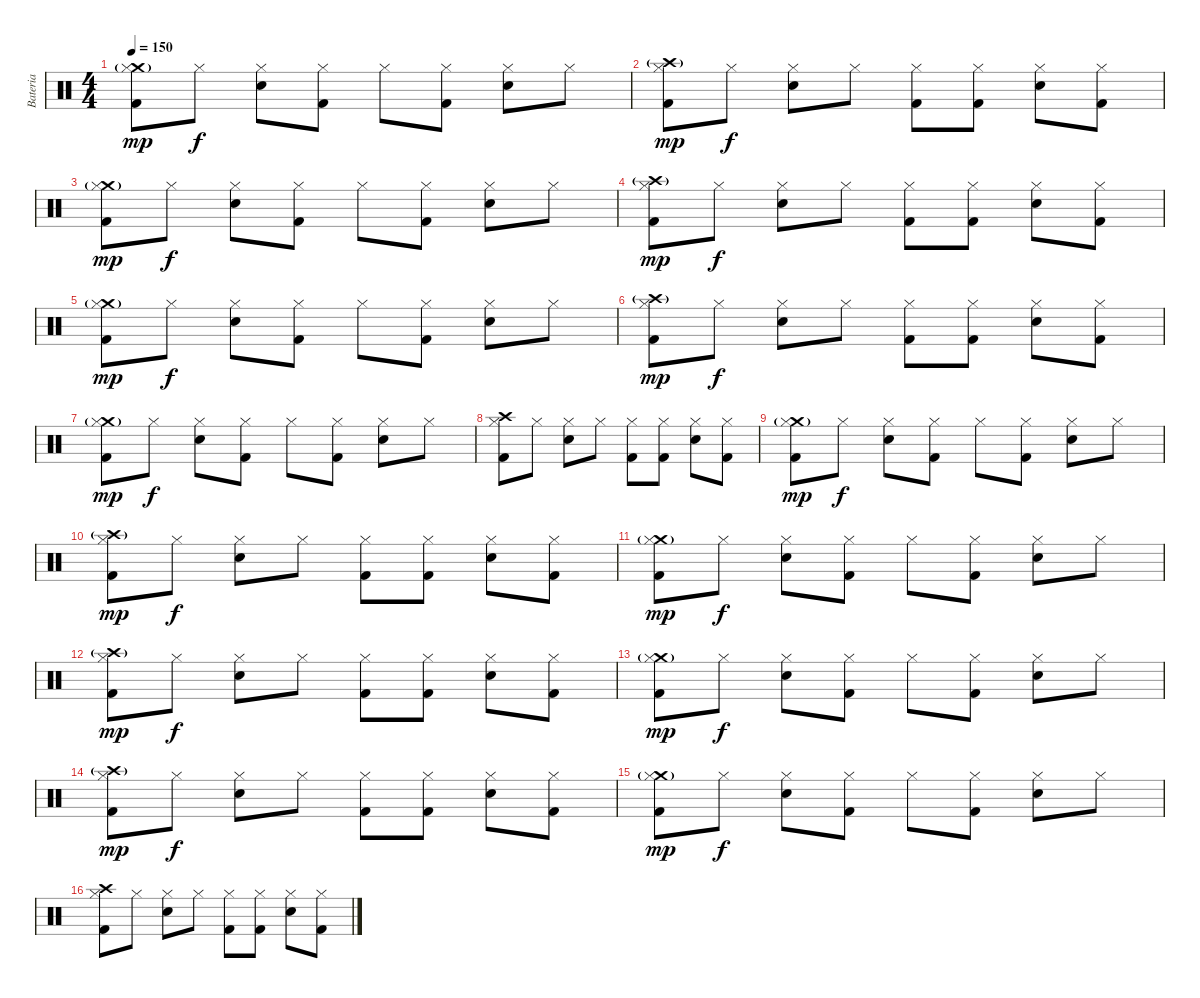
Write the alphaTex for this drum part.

\track ("Bateria" "Bateria") {instrument percussion}
\staff {score}
\articulation defaults
\ts (4 4)
\tempo 150
\clef neutral
\ks c
("Kick (hit) 2" "Crash medium (hit)"{g} "Hi-Hat (closed)").8{dy mp} "Hi-Hat (closed)".8{dy f} ("Electric Snare (hit)" "Hi-Hat (closed)").8 ("Kick (hit) 2" "Hi-Hat (closed)").8 "Hi-Hat (closed)".8 ("Kick (hit) 2" "Hi-Hat (closed)").8 ("Electric Snare (hit)" "Hi-Hat (closed)").8 "Hi-Hat (closed)".8 |
("Kick (hit) 2" "Crash high (hit)"{g} "Hi-Hat (closed)").8{dy mp} "Hi-Hat (closed)".8{dy f} ("Electric Snare (hit)" "Hi-Hat (closed)").8 "Hi-Hat (closed)".8 ("Kick (hit) 2" "Hi-Hat (closed)").8 ("Kick (hit) 2" "Hi-Hat (closed)").8 ("Electric Snare (hit)" "Hi-Hat (closed)").8 ("Kick (hit) 2" "Hi-Hat (closed)").8 |
("Kick (hit) 2" "Crash medium (hit)"{g} "Hi-Hat (closed)").8{dy mp} "Hi-Hat (closed)".8{dy f} ("Electric Snare (hit)" "Hi-Hat (closed)").8 ("Kick (hit) 2" "Hi-Hat (closed)").8 "Hi-Hat (closed)".8 ("Kick (hit) 2" "Hi-Hat (closed)").8 ("Electric Snare (hit)" "Hi-Hat (closed)").8 "Hi-Hat (closed)".8 |
("Kick (hit) 2" "Crash high (hit)"{g} "Hi-Hat (closed)").8{dy mp} "Hi-Hat (closed)".8{dy f} ("Electric Snare (hit)" "Hi-Hat (closed)").8 "Hi-Hat (closed)".8 ("Kick (hit) 2" "Hi-Hat (closed)").8 ("Kick (hit) 2" "Hi-Hat (closed)").8 ("Electric Snare (hit)" "Hi-Hat (closed)").8 ("Kick (hit) 2" "Hi-Hat (closed)").8 |
("Kick (hit) 2" "Crash medium (hit)"{g} "Hi-Hat (closed)").8{dy mp} "Hi-Hat (closed)".8{dy f} ("Electric Snare (hit)" "Hi-Hat (closed)").8 ("Kick (hit) 2" "Hi-Hat (closed)").8 "Hi-Hat (closed)".8 ("Kick (hit) 2" "Hi-Hat (closed)").8 ("Electric Snare (hit)" "Hi-Hat (closed)").8 "Hi-Hat (closed)".8 |
("Kick (hit) 2" "Crash high (hit)"{g} "Hi-Hat (closed)").8{dy mp} "Hi-Hat (closed)".8{dy f} ("Electric Snare (hit)" "Hi-Hat (closed)").8 "Hi-Hat (closed)".8 ("Kick (hit) 2" "Hi-Hat (closed)").8 ("Kick (hit) 2" "Hi-Hat (closed)").8 ("Electric Snare (hit)" "Hi-Hat (closed)").8 ("Kick (hit) 2" "Hi-Hat (closed)").8 |
("Kick (hit) 2" "Crash medium (hit)"{g} "Hi-Hat (closed)").8{dy mp} "Hi-Hat (closed)".8{dy f} ("Electric Snare (hit)" "Hi-Hat (closed)").8 ("Kick (hit) 2" "Hi-Hat (closed)").8 "Hi-Hat (closed)".8 ("Kick (hit) 2" "Hi-Hat (closed)").8 ("Electric Snare (hit)" "Hi-Hat (closed)").8 "Hi-Hat (closed)".8 |
("Kick (hit) 2" "Crash high (hit)" "Hi-Hat (closed)").8 "Hi-Hat (closed)".8 ("Electric Snare (hit)" "Hi-Hat (closed)").8 "Hi-Hat (closed)".8 ("Kick (hit) 2" "Hi-Hat (closed)").8 ("Kick (hit) 2" "Hi-Hat (closed)").8 ("Electric Snare (hit)" "Hi-Hat (closed)").8 ("Kick (hit) 2" "Hi-Hat (closed)").8 |
("Kick (hit) 2" "Crash medium (hit)"{g} "Hi-Hat (closed)").8{dy mp} "Hi-Hat (closed)".8{dy f} ("Electric Snare (hit)" "Hi-Hat (closed)").8 ("Kick (hit) 2" "Hi-Hat (closed)").8 "Hi-Hat (closed)".8 ("Kick (hit) 2" "Hi-Hat (closed)").8 ("Electric Snare (hit)" "Hi-Hat (closed)").8 "Hi-Hat (closed)".8 |
("Kick (hit) 2" "Crash high (hit)"{g} "Hi-Hat (closed)").8{dy mp} "Hi-Hat (closed)".8{dy f} ("Electric Snare (hit)" "Hi-Hat (closed)").8 "Hi-Hat (closed)".8 ("Kick (hit) 2" "Hi-Hat (closed)").8 ("Kick (hit) 2" "Hi-Hat (closed)").8 ("Electric Snare (hit)" "Hi-Hat (closed)").8 ("Kick (hit) 2" "Hi-Hat (closed)").8 |
("Kick (hit) 2" "Crash medium (hit)"{g} "Hi-Hat (closed)").8{dy mp} "Hi-Hat (closed)".8{dy f} ("Electric Snare (hit)" "Hi-Hat (closed)").8 ("Kick (hit) 2" "Hi-Hat (closed)").8 "Hi-Hat (closed)".8 ("Kick (hit) 2" "Hi-Hat (closed)").8 ("Electric Snare (hit)" "Hi-Hat (closed)").8 "Hi-Hat (closed)".8 |
("Kick (hit) 2" "Crash high (hit)"{g} "Hi-Hat (closed)").8{dy mp} "Hi-Hat (closed)".8{dy f} ("Electric Snare (hit)" "Hi-Hat (closed)").8 "Hi-Hat (closed)".8 ("Kick (hit) 2" "Hi-Hat (closed)").8 ("Kick (hit) 2" "Hi-Hat (closed)").8 ("Electric Snare (hit)" "Hi-Hat (closed)").8 ("Kick (hit) 2" "Hi-Hat (closed)").8 |
("Kick (hit) 2" "Crash medium (hit)"{g} "Hi-Hat (closed)").8{dy mp} "Hi-Hat (closed)".8{dy f} ("Electric Snare (hit)" "Hi-Hat (closed)").8 ("Kick (hit) 2" "Hi-Hat (closed)").8 "Hi-Hat (closed)".8 ("Kick (hit) 2" "Hi-Hat (closed)").8 ("Electric Snare (hit)" "Hi-Hat (closed)").8 "Hi-Hat (closed)".8 |
("Kick (hit) 2" "Crash high (hit)"{g} "Hi-Hat (closed)").8{dy mp} "Hi-Hat (closed)".8{dy f} ("Electric Snare (hit)" "Hi-Hat (closed)").8 "Hi-Hat (closed)".8 ("Kick (hit) 2" "Hi-Hat (closed)").8 ("Kick (hit) 2" "Hi-Hat (closed)").8 ("Electric Snare (hit)" "Hi-Hat (closed)").8 ("Kick (hit) 2" "Hi-Hat (closed)").8 |
("Kick (hit) 2" "Crash medium (hit)"{g} "Hi-Hat (closed)").8{dy mp} "Hi-Hat (closed)".8{dy f} ("Electric Snare (hit)" "Hi-Hat (closed)").8 ("Kick (hit) 2" "Hi-Hat (closed)").8 "Hi-Hat (closed)".8 ("Kick (hit) 2" "Hi-Hat (closed)").8 ("Electric Snare (hit)" "Hi-Hat (closed)").8 "Hi-Hat (closed)".8 |
("Kick (hit) 2" "Crash high (hit)" "Hi-Hat (closed)").8 "Hi-Hat (closed)".8 ("Electric Snare (hit)" "Hi-Hat (closed)").8 "Hi-Hat (closed)".8 ("Kick (hit) 2" "Hi-Hat (closed)").8 ("Kick (hit) 2" "Hi-Hat (closed)").8 ("Electric Snare (hit)" "Hi-Hat (closed)").8 ("Kick (hit) 2" "Hi-Hat (closed)").8
